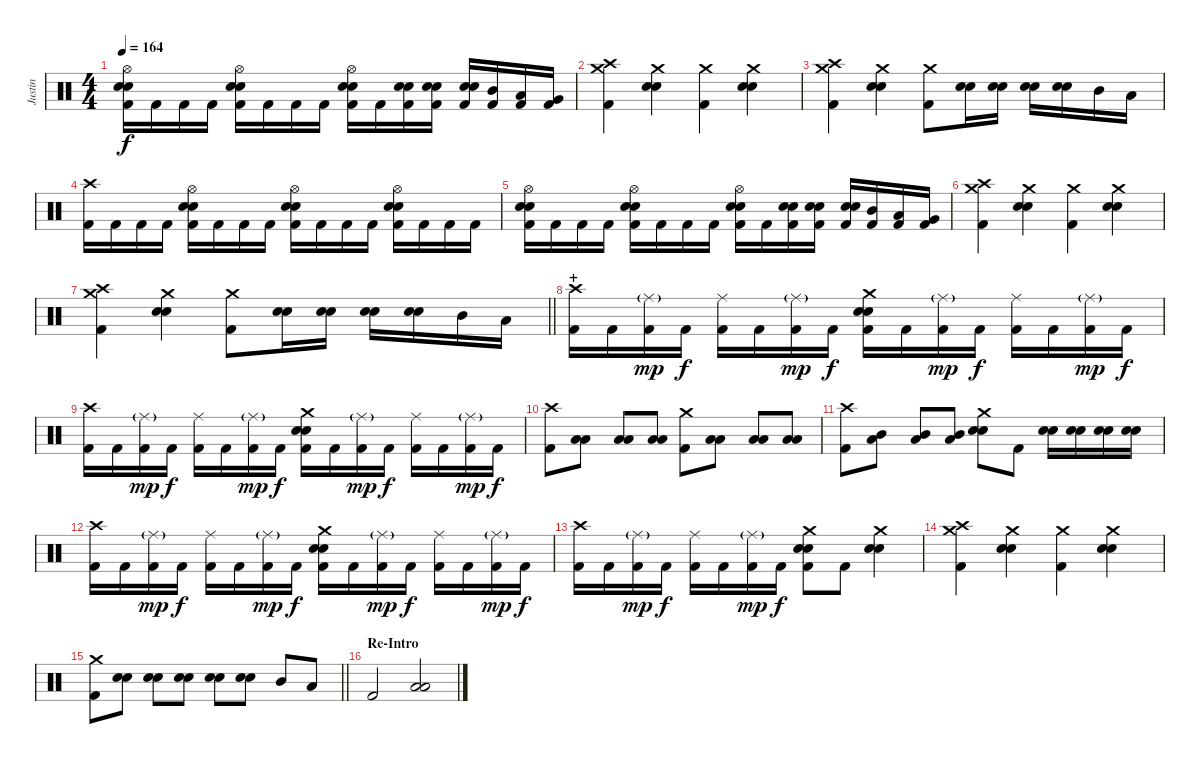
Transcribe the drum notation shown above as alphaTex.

\track ("Justin" "Justin") {instrument percussion}
\staff {score}
\articulation defaults
\ts (4 4)
\tempo 164
\clef neutral
\ks c
("Hi-Hat (open)" "Electric Snare (hit)" "Snare (hit) 2" "Kick (hit) 2").16{dy f} "Kick (hit) 2".16 "Kick (hit) 2".16 "Kick (hit) 2".16 ("Hi-Hat (open)" "Electric Snare (hit)" "Snare (hit) 2" "Kick (hit) 2").16 "Kick (hit) 2".16 "Kick (hit) 2".16 "Kick (hit) 2".16 ("Hi-Hat (open)" "Electric Snare (hit)" "Snare (hit) 2" "Kick (hit) 2").16 "Kick (hit) 2".16 ("Electric Snare (hit)" "Snare (hit) 2" "Kick (hit) 2").16 ("Electric Snare (hit)" "Snare (hit) 2" "Kick (hit) 2").16 ("Electric Snare (hit)" "Snare (hit) 2" "Kick (hit) 2").16 ("Mid Tom (hit)" "Kick (hit) 2").16 ("Low Tom (hit)" "Kick (hit) 2").16 ("Very Low Tom (hit)" "Kick (hit) 2").16 |
("Crash medium (hit)" "Crash high (hit)" "Kick (hit) 2").4 ("Crash medium (hit)" "Electric Snare (hit)" "Snare (hit) 2").4 ("Crash medium (hit)" "Kick (hit) 2").4 ("Crash medium (hit)" "Electric Snare (hit)" "Snare (hit) 2").4 |
("Crash medium (hit)" "Crash high (hit)" "Kick (hit) 2").4 ("Crash medium (hit)" "Electric Snare (hit)" "Snare (hit) 2").4 ("Crash medium (hit)" "Kick (hit) 2").8 ("Electric Snare (hit)" "Snare (hit) 2").16 ("Electric Snare (hit)" "Snare (hit) 2").16 ("Electric Snare (hit)" "Snare (hit) 2").16 ("Electric Snare (hit)" "Snare (hit) 2").16 "Mid Tom (hit)".16 "Low Tom (hit)".16 |
("Crash high (hit)" "Kick (hit) 2").16 "Kick (hit) 2".16 "Kick (hit) 2".16 "Kick (hit) 2".16 ("Hi-Hat (open)" "Electric Snare (hit)" "Snare (hit) 2" "Kick (hit) 2").16 "Kick (hit) 2".16 "Kick (hit) 2".16 "Kick (hit) 2".16 ("Hi-Hat (open)" "Electric Snare (hit)" "Snare (hit) 2" "Kick (hit) 2").16 "Kick (hit) 2".16 "Kick (hit) 2".16 "Kick (hit) 2".16 ("Hi-Hat (open)" "Electric Snare (hit)" "Snare (hit) 2" "Kick (hit) 2").16 "Kick (hit) 2".16 "Kick (hit) 2".16 "Kick (hit) 2".16 |
("Hi-Hat (open)" "Electric Snare (hit)" "Snare (hit) 2" "Kick (hit) 2").16 "Kick (hit) 2".16 "Kick (hit) 2".16 "Kick (hit) 2".16 ("Hi-Hat (open)" "Electric Snare (hit)" "Snare (hit) 2" "Kick (hit) 2").16 "Kick (hit) 2".16 "Kick (hit) 2".16 "Kick (hit) 2".16 ("Hi-Hat (open)" "Electric Snare (hit)" "Snare (hit) 2" "Kick (hit) 2").16 "Kick (hit) 2".16 ("Electric Snare (hit)" "Snare (hit) 2" "Kick (hit) 2").16 ("Electric Snare (hit)" "Snare (hit) 2" "Kick (hit) 2").16 ("Electric Snare (hit)" "Snare (hit) 2" "Kick (hit) 2").16 ("Mid Tom (hit)" "Kick (hit) 2").16 ("Low Tom (hit)" "Kick (hit) 2").16 ("Very Low Tom (hit)" "Kick (hit) 2").16 |
("Crash medium (hit)" "Crash high (hit)" "Kick (hit) 2").4 ("Crash medium (hit)" "Electric Snare (hit)" "Snare (hit) 2").4 ("Crash medium (hit)" "Kick (hit) 2").4 ("Crash medium (hit)" "Electric Snare (hit)" "Snare (hit) 2").4 |
\barLineRight lightlight
("Crash medium (hit)" "Crash high (hit)" "Kick (hit) 2").4 ("Crash medium (hit)" "Electric Snare (hit)" "Snare (hit) 2").4 ("Crash medium (hit)" "Kick (hit) 2").8 ("Electric Snare (hit)" "Snare (hit) 2").16 ("Electric Snare (hit)" "Snare (hit) 2").16 ("Electric Snare (hit)" "Snare (hit) 2").16 ("Electric Snare (hit)" "Snare (hit) 2").16 "Mid Tom (hit)".16 "Low Tom (hit)".16 |
\section ("" "+")
("Crash high (hit)" "Kick (hit) 2").16 "Kick (hit) 2".16 ("Ride (middle)"{g} "Kick (hit) 2").16{dy mp} "Kick (hit) 2".16{dy f} ("Ride (middle)" "Kick (hit) 2").16 "Kick (hit) 2".16 ("Ride (middle)"{g} "Kick (hit) 2").16{dy mp} "Kick (hit) 2".16{dy f} ("Crash medium (hit)" "Electric Snare (hit)" "Snare (hit) 2" "Kick (hit) 2").16 "Kick (hit) 2".16 ("Ride (middle)"{g} "Kick (hit) 2").16{dy mp} "Kick (hit) 2".16{dy f} ("Ride (middle)" "Kick (hit) 2").16 "Kick (hit) 2".16 ("Ride (middle)"{g} "Kick (hit) 2").16{dy mp} "Kick (hit) 2".16{dy f} |
("Crash high (hit)" "Kick (hit) 2").16 "Kick (hit) 2".16 ("Ride (middle)"{g} "Kick (hit) 2").16{dy mp} "Kick (hit) 2".16{dy f} ("Ride (middle)" "Kick (hit) 2").16 "Kick (hit) 2".16 ("Ride (middle)"{g} "Kick (hit) 2").16{dy mp} "Kick (hit) 2".16{dy f} ("Crash medium (hit)" "Electric Snare (hit)" "Snare (hit) 2" "Kick (hit) 2").16 "Kick (hit) 2".16 ("Ride (middle)"{g} "Kick (hit) 2").16{dy mp} "Kick (hit) 2".16{dy f} ("Ride (middle)" "Kick (hit) 2").16 "Kick (hit) 2".16 ("Ride (middle)"{g} "Kick (hit) 2").16{dy mp} "Kick (hit) 2".16{dy f} |
("Crash high (hit)" "Kick (hit) 2").8 ("Low Tom (hit)" "Low Floor Tom (hit)").8 ("Low Tom (hit)" "Low Floor Tom (hit)").8 ("Low Tom (hit)" "Low Floor Tom (hit)").8 ("Crash medium (hit)" "Kick (hit) 2").8 ("Low Tom (hit)" "Low Floor Tom (hit)").8 ("Low Tom (hit)" "Low Floor Tom (hit)").8 ("Low Tom (hit)" "Low Floor Tom (hit)").8 |
("Crash high (hit)" "Kick (hit) 2").8 ("Mid Tom (hit)" "Low Floor Tom (hit)").8 ("Mid Tom (hit)" "Low Floor Tom (hit)").8 ("Mid Tom (hit)" "Low Floor Tom (hit)").8 ("Crash medium (hit)" "Electric Snare (hit)" "Snare (hit) 2").8 "Kick (hit) 2".8 ("Electric Snare (hit)" "Snare (hit) 2").16 ("Electric Snare (hit)" "Snare (hit) 2").16 ("Electric Snare (hit)" "Snare (hit) 2").16 ("Electric Snare (hit)" "Snare (hit) 2").16 |
("Crash high (hit)" "Kick (hit) 2").16 "Kick (hit) 2".16 ("Ride (middle)"{g} "Kick (hit) 2").16{dy mp} "Kick (hit) 2".16{dy f} ("Ride (middle)" "Kick (hit) 2").16 "Kick (hit) 2".16 ("Ride (middle)"{g} "Kick (hit) 2").16{dy mp} "Kick (hit) 2".16{dy f} ("Crash medium (hit)" "Electric Snare (hit)" "Snare (hit) 2" "Kick (hit) 2").16 "Kick (hit) 2".16 ("Ride (middle)"{g} "Kick (hit) 2").16{dy mp} "Kick (hit) 2".16{dy f} ("Ride (middle)" "Kick (hit) 2").16 "Kick (hit) 2".16 ("Ride (middle)"{g} "Kick (hit) 2").16{dy mp} "Kick (hit) 2".16{dy f} |
("Crash high (hit)" "Kick (hit) 2").16 "Kick (hit) 2".16 ("Ride (middle)"{g} "Kick (hit) 2").16{dy mp} "Kick (hit) 2".16{dy f} ("Ride (middle)" "Kick (hit) 2").16 "Kick (hit) 2".16 ("Ride (middle)"{g} "Kick (hit) 2").16{dy mp} "Kick (hit) 2".16{dy f} ("Crash medium (hit)" "Electric Snare (hit)" "Snare (hit) 2" "Kick (hit) 2").8 "Kick (hit) 2".8 ("Crash medium (hit)" "Electric Snare (hit)" "Snare (hit) 2").4 |
("Crash high (hit)" "Crash medium (hit)" "Kick (hit) 2").4 ("Crash medium (hit)" "Electric Snare (hit)" "Snare (hit) 2").4 ("Crash medium (hit)" "Kick (hit) 2").4 ("Crash medium (hit)" "Electric Snare (hit)" "Snare (hit) 2").4 |
\barLineRight lightlight
("Crash medium (hit)" "Kick (hit) 2").8 ("Electric Snare (hit)" "Snare (hit) 2").8 ("Electric Snare (hit)" "Snare (hit) 2").8 ("Electric Snare (hit)" "Snare (hit) 2").8 ("Electric Snare (hit)" "Snare (hit) 2").8 ("Electric Snare (hit)" "Snare (hit) 2").8 "Mid Tom (hit)".8 "Low Tom (hit)".8 |
\section ("" "Re-Intro")
"Kick (hit) 2".2 ("Low Tom (hit)" "Low Floor Tom (hit)").2{bd 240}
